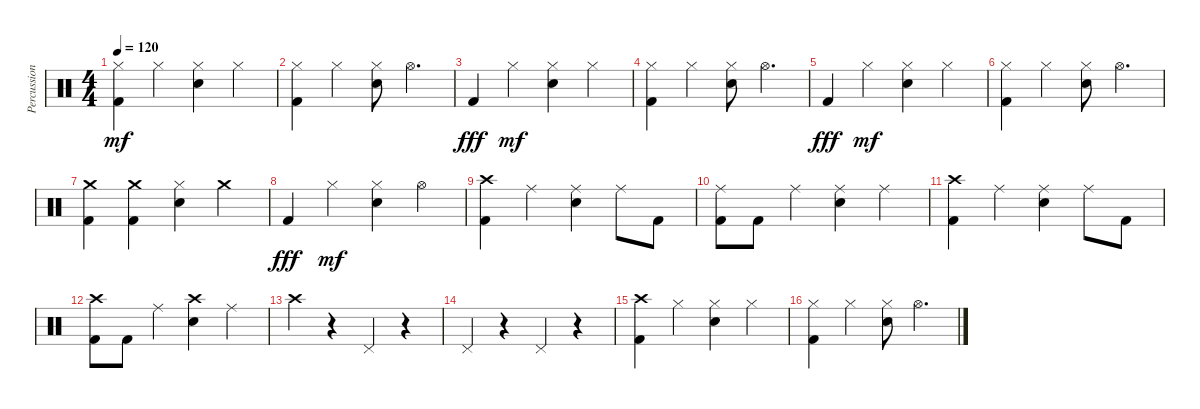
\track ("Percussioni" "Percussion") {instrument percussion}
\staff {score}
\articulation defaults
\ts (4 4)
\tempo 120
\clef neutral
\ks c
("Hi-Hat (closed)" "Kick (hit) 2").4{dy mf} "Hi-Hat (closed)".4 ("Hi-Hat (closed)" "Snare (hit) 2").4 "Hi-Hat (closed)".4 |
("Hi-Hat (closed)" "Kick (hit) 2").4 "Hi-Hat (closed)".4 ("Hi-Hat (closed)" "Snare (hit) 2").8 "Hi-Hat (open)".4{d} |
"Kick (hit) 2".4{dy fff} "Hi-Hat (closed)".4{dy mf} ("Hi-Hat (closed)" "Snare (hit) 2").4 "Hi-Hat (closed)".4 |
("Hi-Hat (closed)" "Kick (hit) 2").4 "Hi-Hat (closed)".4 ("Hi-Hat (closed)" "Snare (hit) 2").8 "Hi-Hat (open)".4{d} |
"Kick (hit) 2".4{dy fff} "Hi-Hat (closed)".4{dy mf} ("Hi-Hat (closed)" "Snare (hit) 2").4 "Hi-Hat (closed)".4 |
("Hi-Hat (closed)" "Kick (hit) 2").4 "Hi-Hat (closed)".4 ("Hi-Hat (closed)" "Snare (hit) 2").8 "Hi-Hat (open)".4{d} |
("Crash medium (hit)" "Kick (hit) 2").4 ("Crash medium (hit)" "Kick (hit) 2").4 ("Hi-Hat (closed)" "Snare (hit) 2").4 "Crash medium (hit)".4 |
"Kick (hit) 2".4{dy fff} "Hi-Hat (closed)".4{dy mf} ("Hi-Hat (closed)" "Snare (hit) 2").4 "Hi-Hat (open)".4 |
("Crash high (hit)" "Kick (hit) 2").4 "Ride (middle)".4 ("Ride (middle)" "Snare (hit) 2").4 "Ride (middle)".8 "Kick (hit) 2".8 |
("Ride (middle)" "Kick (hit) 2").8 "Kick (hit) 2".8 "Ride (middle)".4 ("Ride (middle)" "Snare (hit) 2").4 "Ride (middle)".4 |
("Crash high (hit)" "Kick (hit) 2").4 "Ride (middle)".4 ("Ride (middle)" "Snare (hit) 2").4 "Ride (middle)".8 "Kick (hit) 2".8 |
("Crash high (hit)" "Kick (hit) 2").8 "Kick (hit) 2".8 "Ride (middle)".4 ("Crash high (hit)" "Snare (hit) 2").4 "Ride (middle)".4 |
"Crash high (hit)".4 r.4 "Pedal Hi-Hat (hit)".4 r.4 |
"Pedal Hi-Hat (hit)".4 r.4 "Pedal Hi-Hat (hit)".4 r.4 |
("Crash high (hit)" "Kick (hit) 2").4 "Hi-Hat (closed)".4 ("Hi-Hat (closed)" "Snare (hit) 2").4 "Hi-Hat (closed)".4 |
("Hi-Hat (closed)" "Kick (hit) 2").4 "Hi-Hat (closed)".4 ("Hi-Hat (closed)" "Snare (hit) 2").8 "Hi-Hat (open)".4{d}
